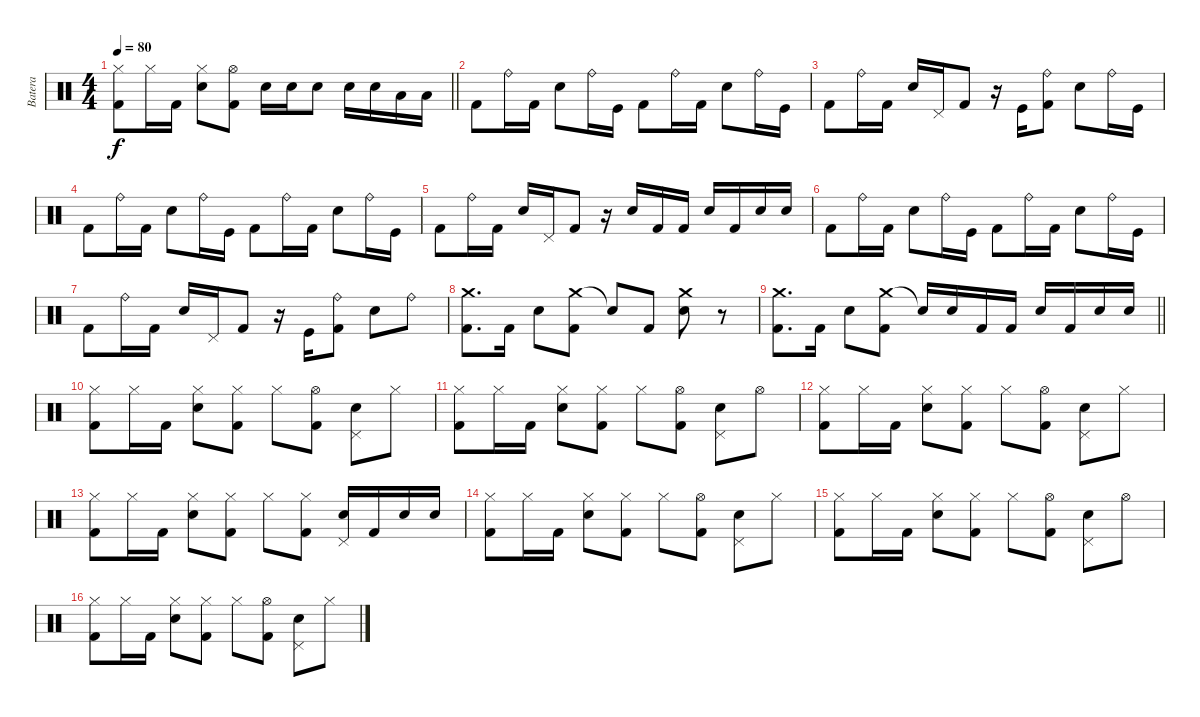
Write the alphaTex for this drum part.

\track ("Batera" "Batera") {instrument percussion}
\staff {score}
\articulation defaults
\ts (4 4)
\tempo 80
\clef neutral
\barLineRight lightlight
\ks c
("Hi-Hat (closed)" "Kick (hit) 2").8{dy f} "Hi-Hat (closed)".16 "Kick (hit) 2".16 ("Hi-Hat (closed)" "Electric Snare (hit)").8 ("Hi-Hat (open)" "Kick (hit) 2").8 "Electric Snare (hit)".16 "Electric Snare (hit)".16 "Electric Snare (hit)".8 "Electric Snare (hit)".16 "Electric Snare (hit)".16 "Low Tom (hit)".16 "Low Floor Tom (hit)".16 |
"Kick (hit) 2".8 "Ride (bell)".16 "Kick (hit) 2".16 "Electric Snare (hit)".8 "Ride (bell)".16 "Kick (hit)".16 "Kick (hit) 2".8 "Ride (bell)".16 "Kick (hit) 2".16 "Electric Snare (hit)".8 "Ride (bell)".16 "Kick (hit)".16 |
"Kick (hit) 2".8 "Ride (bell)".16 "Kick (hit) 2".16 "Electric Snare (hit)".16 "Pedal Hi-Hat (hit)".16 "Kick (hit) 2".8 r.16 "Kick (hit)".16 ("Ride (bell)" "Kick (hit) 2").8 "Electric Snare (hit)".8 "Ride (bell)".16 "Kick (hit)".16 |
"Kick (hit) 2".8 "Ride (bell)".16 "Kick (hit) 2".16 "Electric Snare (hit)".8 "Ride (bell)".16 "Kick (hit)".16 "Kick (hit) 2".8 "Ride (bell)".16 "Kick (hit) 2".16 "Electric Snare (hit)".8 "Ride (bell)".16 "Kick (hit)".16 |
"Kick (hit) 2".8 "Ride (bell)".16 "Kick (hit) 2".16 "Electric Snare (hit)".16 "Pedal Hi-Hat (hit)".16 "Kick (hit) 2".8 r.16 "Electric Snare (hit)".16 "Kick (hit) 2".16 "Kick (hit) 2".16 "Electric Snare (hit)".16 "Kick (hit) 2".16 "Electric Snare (hit)".16 "Electric Snare (hit)".16 |
"Kick (hit) 2".8 "Ride (bell)".16 "Kick (hit) 2".16 "Electric Snare (hit)".8 "Ride (bell)".16 "Kick (hit)".16 "Kick (hit) 2".8 "Ride (bell)".16 "Kick (hit) 2".16 "Electric Snare (hit)".8 "Ride (bell)".16 "Kick (hit)".16 |
"Kick (hit) 2".8 "Ride (bell)".16 "Kick (hit) 2".16 "Electric Snare (hit)".16 "Pedal Hi-Hat (hit)".16 "Kick (hit) 2".8 r.16 "Kick (hit)".16 ("Ride (bell)" "Kick (hit) 2").8 "Electric Snare (hit)".8 "Ride (bell)".8 |
("Crash medium (hit)" "Kick (hit) 2").8{d} "Kick (hit) 2".16 "Electric Snare (hit)".8 ("Crash medium (hit)" "Kick (hit) 2").8 "Snare (hit)"{t}.8 "Kick (hit) 2".8 ("Crash medium (hit)" "Electric Snare (hit)").8 r.8 |
\barLineRight lightlight
("Crash medium (hit)" "Kick (hit) 2").8{d} "Kick (hit) 2".16 "Electric Snare (hit)".8 ("Crash medium (hit)" "Kick (hit) 2").8 "Snare (hit)"{t}.16 "Electric Snare (hit)".16 "Kick (hit) 2".16 "Kick (hit) 2".16 "Electric Snare (hit)".16 "Kick (hit) 2".16 "Electric Snare (hit)".16 "Electric Snare (hit)".16 |
("Hi-Hat (closed)" "Kick (hit) 2").8 "Hi-Hat (closed)".16 "Kick (hit) 2".16 ("Hi-Hat (closed)" "Electric Snare (hit)").8 ("Hi-Hat (closed)" "Kick (hit) 2").8 "Hi-Hat (closed)".8 ("Hi-Hat (open)" "Kick (hit) 2").8 ("Pedal Hi-Hat (hit)" "Electric Snare (hit)").8 "Hi-Hat (closed)".8 |
("Hi-Hat (closed)" "Kick (hit) 2").8 "Hi-Hat (closed)".16 "Kick (hit) 2".16 ("Hi-Hat (closed)" "Electric Snare (hit)").8 ("Hi-Hat (closed)" "Kick (hit) 2").8 "Hi-Hat (closed)".8 ("Hi-Hat (open)" "Kick (hit) 2").8 ("Pedal Hi-Hat (hit)" "Electric Snare (hit)").8 "Hi-Hat (open)".8 |
("Hi-Hat (closed)" "Kick (hit) 2").8 "Hi-Hat (closed)".16 "Kick (hit) 2".16 ("Hi-Hat (closed)" "Electric Snare (hit)").8 ("Hi-Hat (closed)" "Kick (hit) 2").8 "Hi-Hat (closed)".8 ("Hi-Hat (open)" "Kick (hit) 2").8 ("Pedal Hi-Hat (hit)" "Electric Snare (hit)").8 "Hi-Hat (closed)".8 |
("Hi-Hat (closed)" "Kick (hit) 2").8 "Hi-Hat (closed)".16 "Kick (hit) 2".16 ("Hi-Hat (closed)" "Electric Snare (hit)").8 ("Hi-Hat (closed)" "Kick (hit) 2").8 "Hi-Hat (closed)".8 ("Hi-Hat (closed)" "Kick (hit) 2").8 ("Pedal Hi-Hat (hit)" "Electric Snare (hit)").16 "Kick (hit) 2".16 "Electric Snare (hit)".16 "Electric Snare (hit)".16 |
("Hi-Hat (closed)" "Kick (hit) 2").8 "Hi-Hat (closed)".16 "Kick (hit) 2".16 ("Hi-Hat (closed)" "Electric Snare (hit)").8 ("Hi-Hat (closed)" "Kick (hit) 2").8 "Hi-Hat (closed)".8 ("Hi-Hat (open)" "Kick (hit) 2").8 ("Pedal Hi-Hat (hit)" "Electric Snare (hit)").8 "Hi-Hat (closed)".8 |
("Hi-Hat (closed)" "Kick (hit) 2").8 "Hi-Hat (closed)".16 "Kick (hit) 2".16 ("Hi-Hat (closed)" "Electric Snare (hit)").8 ("Hi-Hat (closed)" "Kick (hit) 2").8 "Hi-Hat (closed)".8 ("Hi-Hat (open)" "Kick (hit) 2").8 ("Pedal Hi-Hat (hit)" "Electric Snare (hit)").8 "Hi-Hat (open)".8 |
("Hi-Hat (closed)" "Kick (hit) 2").8 "Hi-Hat (closed)".16 "Kick (hit) 2".16 ("Hi-Hat (closed)" "Electric Snare (hit)").8 ("Hi-Hat (closed)" "Kick (hit) 2").8 "Hi-Hat (closed)".8 ("Hi-Hat (open)" "Kick (hit) 2").8 ("Pedal Hi-Hat (hit)" "Electric Snare (hit)").8 "Hi-Hat (closed)".8
